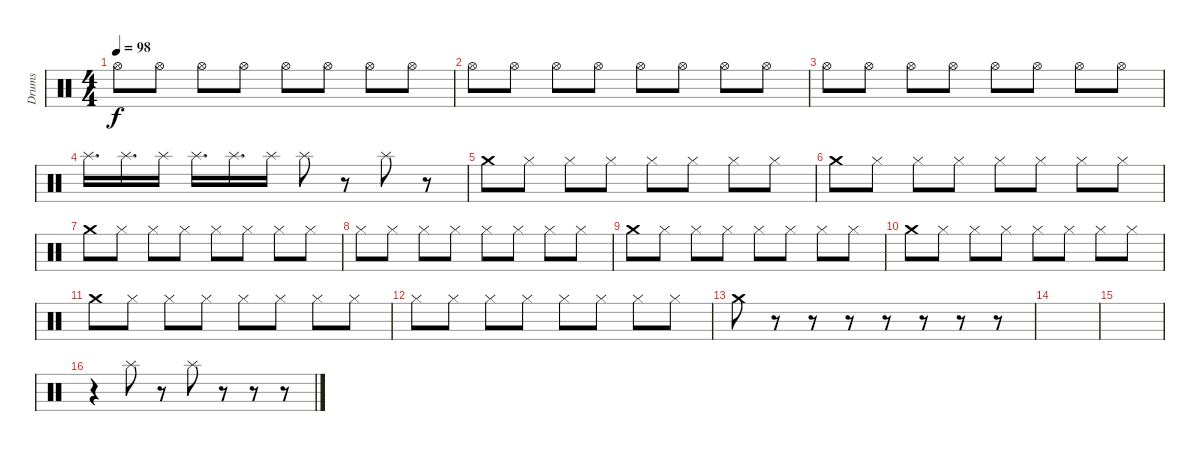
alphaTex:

\track ("Drums" "Drums") {instrument percussion}
\staff {score}
\articulation defaults
\ts (4 4)
\tempo 98
\clef neutral
\ks c "Hi-Hat (open)".8{dy f} "Hi-Hat (open)".8 "Hi-Hat (open)".8 "Hi-Hat (open)".8 "Hi-Hat (open)".8 "Hi-Hat (open)".8 "Hi-Hat (open)".8 "Hi-Hat (open)".8
|
"Hi-Hat (open)".8 "Hi-Hat (open)".8 "Hi-Hat (open)".8 "Hi-Hat (open)".8 "Hi-Hat (open)".8 "Hi-Hat (open)".8 "Hi-Hat (open)".8 "Hi-Hat (open)".8 |
"Hi-Hat (open)".8 "Hi-Hat (open)".8 "Hi-Hat (open)".8 "Hi-Hat (open)".8 "Hi-Hat (open)".8 "Hi-Hat (open)".8 "Hi-Hat (open)".8 "Hi-Hat (open)".8 |
"Splash (hit)".16{d} "Splash (hit)".16{d} "Splash (hit)".16 "Splash (hit)".16{d} "Splash (hit)".16{d} "Splash (hit)".16 "Splash (hit)".8 r.8 "Splash (hit)".8 r.8 |
"Crash medium (hit)".8 "Hi-Hat (closed)".8 "Hi-Hat (closed)".8 "Hi-Hat (closed)".8 "Hi-Hat (closed)".8 "Hi-Hat (closed)".8 "Hi-Hat (closed)".8 "Hi-Hat (closed)".8 |
"Crash medium (hit)".8 "Hi-Hat (closed)".8 "Hi-Hat (closed)".8 "Hi-Hat (closed)".8 "Hi-Hat (closed)".8 "Hi-Hat (closed)".8 "Hi-Hat (closed)".8 "Hi-Hat (closed)".8 |
"Crash medium (hit)".8 "Hi-Hat (closed)".8 "Hi-Hat (closed)".8 "Hi-Hat (closed)".8 "Hi-Hat (closed)".8 "Hi-Hat (closed)".8 "Hi-Hat (closed)".8 "Hi-Hat (closed)".8 |
"Hi-Hat (closed)".8 "Hi-Hat (closed)".8 "Hi-Hat (closed)".8 "Hi-Hat (closed)".8 "Hi-Hat (closed)".8 "Hi-Hat (closed)".8 "Hi-Hat (closed)".8 "Hi-Hat (closed)".8 |
"Crash medium (hit)".8 "Hi-Hat (closed)".8 "Hi-Hat (closed)".8 "Hi-Hat (closed)".8 "Hi-Hat (closed)".8 "Hi-Hat (closed)".8 "Hi-Hat (closed)".8 "Hi-Hat (closed)".8 |
"Crash medium (hit)".8 "Hi-Hat (closed)".8 "Hi-Hat (closed)".8 "Hi-Hat (closed)".8 "Hi-Hat (closed)".8 "Hi-Hat (closed)".8 "Hi-Hat (closed)".8 "Hi-Hat (closed)".8 |
"Crash medium (hit)".8 "Hi-Hat (closed)".8 "Hi-Hat (closed)".8 "Hi-Hat (closed)".8 "Hi-Hat (closed)".8 "Hi-Hat (closed)".8 "Hi-Hat (closed)".8 "Hi-Hat (closed)".8 |
"Hi-Hat (closed)".8 "Hi-Hat (closed)".8 "Hi-Hat (closed)".8 "Hi-Hat (closed)".8 "Hi-Hat (closed)".8 "Hi-Hat (closed)".8 "Hi-Hat (closed)".8 "Hi-Hat (closed)".8 |
"Crash medium (hit)".8 r.8 r.8 r.8 r.8 r.8 r.8 r.8 |
|
|
r.4 "Splash (hit)".8 r.8 "Splash (hit)".8 r.8 r.8 r.8
